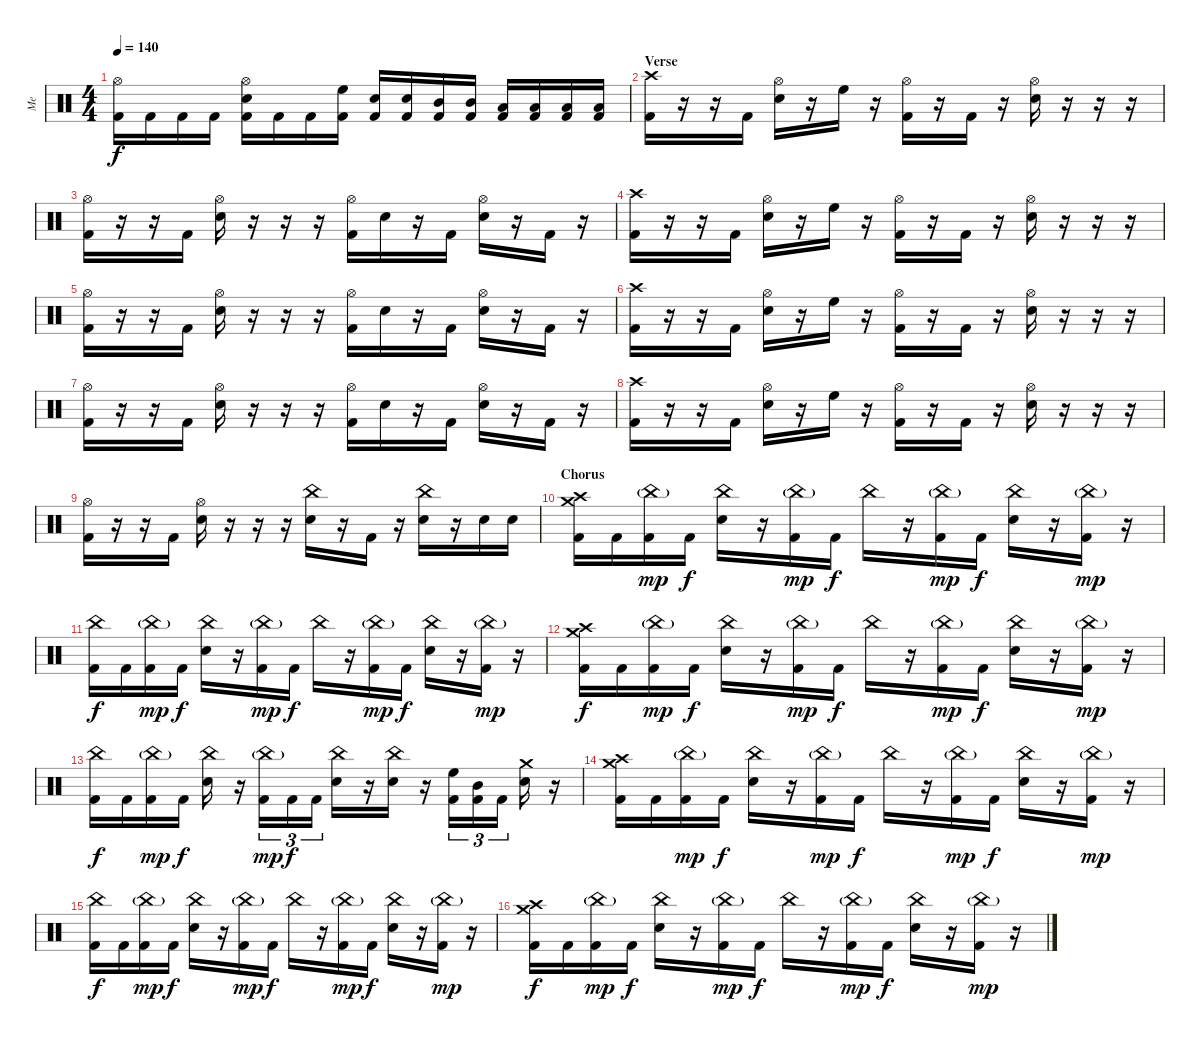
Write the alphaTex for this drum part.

\track ("Me" "Me") {instrument percussion}
\staff {score}
\articulation defaults
\ts (4 4)
\tempo 140
\clef neutral
\ks c
("Hi-Hat (open)" "Kick (hit) 2").16{dy f} "Kick (hit) 2".16 "Kick (hit) 2".16 "Kick (hit) 2".16 ("Hi-Hat (open)" "Electric Snare (hit)" "Kick (hit) 2").16 "Kick (hit) 2".16 "Kick (hit) 2".16 ("High Floor Tom (hit)" "Kick (hit) 2").16 ("Electric Snare (hit)" "Kick (hit) 2").16 ("Electric Snare (hit)" "Kick (hit) 2").16 ("Mid Tom (hit)" "Kick (hit) 2").16 ("Mid Tom (hit)" "Kick (hit) 2").16 ("Low Tom (hit)" "Kick (hit) 2").16 ("Low Tom (hit)" "Kick (hit) 2").16 ("Low Floor Tom (hit)" "Kick (hit) 2").16 ("Low Floor Tom (hit)" "Kick (hit) 2").16 |
\section ("" "Verse")
("Crash high (hit)" "Kick (hit) 2").16 r.16 r.16 "Kick (hit) 2".16 ("Hi-Hat (open)" "Electric Snare (hit)").16 r.16 "High Floor Tom (hit)".16 r.16 ("Hi-Hat (open)" "Kick (hit) 2").16 r.16 "Kick (hit) 2".16 r.16 ("Hi-Hat (open)" "Electric Snare (hit)").16 r.16 r.16 r.16 |
("Hi-Hat (open)" "Kick (hit) 2").16 r.16 r.16 "Kick (hit) 2".16 ("Hi-Hat (open)" "Electric Snare (hit)").16 r.16 r.16 r.16 ("Hi-Hat (open)" "Kick (hit) 2").16 "Electric Snare (hit)".16 r.16 "Kick (hit) 2".16 ("Hi-Hat (open)" "Electric Snare (hit)").16 r.16 "Kick (hit) 2".16 r.16 |
("Crash high (hit)" "Kick (hit) 2").16 r.16 r.16 "Kick (hit) 2".16 ("Hi-Hat (open)" "Electric Snare (hit)").16 r.16 "High Floor Tom (hit)".16 r.16 ("Hi-Hat (open)" "Kick (hit) 2").16 r.16 "Kick (hit) 2".16 r.16 ("Hi-Hat (open)" "Electric Snare (hit)").16 r.16 r.16 r.16 |
("Hi-Hat (open)" "Kick (hit) 2").16 r.16 r.16 "Kick (hit) 2".16 ("Hi-Hat (open)" "Electric Snare (hit)").16 r.16 r.16 r.16 ("Hi-Hat (open)" "Kick (hit) 2").16 "Electric Snare (hit)".16 r.16 "Kick (hit) 2".16 ("Hi-Hat (open)" "Electric Snare (hit)").16 r.16 "Kick (hit) 2".16 r.16 |
("Crash high (hit)" "Kick (hit) 2").16 r.16 r.16 "Kick (hit) 2".16 ("Hi-Hat (open)" "Electric Snare (hit)").16 r.16 "High Floor Tom (hit)".16 r.16 ("Hi-Hat (open)" "Kick (hit) 2").16 r.16 "Kick (hit) 2".16 r.16 ("Hi-Hat (open)" "Electric Snare (hit)").16 r.16 r.16 r.16 |
("Hi-Hat (open)" "Kick (hit) 2").16 r.16 r.16 "Kick (hit) 2".16 ("Hi-Hat (open)" "Electric Snare (hit)").16 r.16 r.16 r.16 ("Hi-Hat (open)" "Kick (hit) 2").16 "Electric Snare (hit)".16 r.16 "Kick (hit) 2".16 ("Hi-Hat (open)" "Electric Snare (hit)").16 r.16 "Kick (hit) 2".16 r.16 |
("Crash high (hit)" "Kick (hit) 2").16 r.16 r.16 "Kick (hit) 2".16 ("Hi-Hat (open)" "Electric Snare (hit)").16 r.16 "High Floor Tom (hit)".16 r.16 ("Hi-Hat (open)" "Kick (hit) 2").16 r.16 "Kick (hit) 2".16 r.16 ("Hi-Hat (open)" "Electric Snare (hit)").16 r.16 r.16 r.16 |
("Hi-Hat (open)" "Kick (hit) 2").16 r.16 r.16 "Kick (hit) 2".16 ("Hi-Hat (open)" "Electric Snare (hit)").16 r.16 r.16 r.16 ("China (hit)" "Electric Snare (hit)").16 r.16 "Kick (hit) 2".16 r.16 ("China (hit)" "Electric Snare (hit)").16 r.16 "Electric Snare (hit)".16 "Electric Snare (hit)".16 |
\section ("" "Chorus")
("Crash medium (hit)" "Crash high (hit)" "Kick (hit) 2").16 "Kick (hit) 2".16 ("China (hit)"{g} "Kick (hit) 2").16{dy mp} "Kick (hit) 2".16{dy f} ("China (hit)" "Electric Snare (hit)").16 r.16 ("China (hit)"{g} "Kick (hit) 2").16{dy mp} "Kick (hit) 2".16{dy f} "China (hit)".16 r.16 ("China (hit)"{g} "Kick (hit) 2").16{dy mp} "Kick (hit) 2".16{dy f} ("China (hit)" "Electric Snare (hit)").16 r.16 ("China (hit)"{g} "Kick (hit) 2").16{dy mp} r.16 |
("China (hit)" "Kick (hit) 2").16{dy f} "Kick (hit) 2".16 ("China (hit)"{g} "Kick (hit) 2").16{dy mp} "Kick (hit) 2".16{dy f} ("China (hit)" "Electric Snare (hit)").16 r.16 ("China (hit)"{g} "Kick (hit) 2").16{dy mp} "Kick (hit) 2".16{dy f} "China (hit)".16 r.16 ("China (hit)"{g} "Kick (hit) 2").16{dy mp} "Kick (hit) 2".16{dy f} ("China (hit)" "Electric Snare (hit)").16 r.16 ("China (hit)"{g} "Kick (hit) 2").16{dy mp} r.16 |
("Crash medium (hit)" "Crash high (hit)" "Kick (hit) 2").16{dy f} "Kick (hit) 2".16 ("China (hit)"{g} "Kick (hit) 2").16{dy mp} "Kick (hit) 2".16{dy f} ("China (hit)" "Electric Snare (hit)").16 r.16 ("China (hit)"{g} "Kick (hit) 2").16{dy mp} "Kick (hit) 2".16{dy f} "China (hit)".16 r.16 ("China (hit)"{g} "Kick (hit) 2").16{dy mp} "Kick (hit) 2".16{dy f} ("China (hit)" "Electric Snare (hit)").16 r.16 ("China (hit)"{g} "Kick (hit) 2").16{dy mp} r.16 |
("China (hit)" "Kick (hit) 2").16{dy f} "Kick (hit) 2".16 ("China (hit)"{g} "Kick (hit) 2").16{dy mp} "Kick (hit) 2".16{dy f} ("China (hit)" "Electric Snare (hit)").16 r.16 ("China (hit)"{g} "Kick (hit) 2").16{tu (3 2) dy mp} "Kick (hit) 2".16{tu (3 2) dy f} "Kick (hit) 2".16{tu (3 2)} ("China (hit)" "Electric Snare (hit)").16 r.16 ("China (hit)" "Electric Snare (hit)").16 r.16 ("High Floor Tom (hit)" "Kick (hit) 2").16{tu (3 2)} ("Mid Tom (hit)" "Kick (hit) 2").16{tu (3 2)} "Kick (hit) 2".16{tu (3 2)} ("Crash medium (hit)" "Electric Snare (hit)").16 r.16 |
("Crash medium (hit)" "Crash high (hit)" "Kick (hit) 2").16 "Kick (hit) 2".16 ("China (hit)"{g} "Kick (hit) 2").16{dy mp} "Kick (hit) 2".16{dy f} ("China (hit)" "Electric Snare (hit)").16 r.16 ("China (hit)"{g} "Kick (hit) 2").16{dy mp} "Kick (hit) 2".16{dy f} "China (hit)".16 r.16 ("China (hit)"{g} "Kick (hit) 2").16{dy mp} "Kick (hit) 2".16{dy f} ("China (hit)" "Electric Snare (hit)").16 r.16 ("China (hit)"{g} "Kick (hit) 2").16{dy mp} r.16 |
("China (hit)" "Kick (hit) 2").16{dy f} "Kick (hit) 2".16 ("China (hit)"{g} "Kick (hit) 2").16{dy mp} "Kick (hit) 2".16{dy f} ("China (hit)" "Electric Snare (hit)").16 r.16 ("China (hit)"{g} "Kick (hit) 2").16{dy mp} "Kick (hit) 2".16{dy f} "China (hit)".16 r.16 ("China (hit)"{g} "Kick (hit) 2").16{dy mp} "Kick (hit) 2".16{dy f} ("China (hit)" "Electric Snare (hit)").16 r.16 ("China (hit)"{g} "Kick (hit) 2").16{dy mp} r.16 |
("Crash medium (hit)" "Crash high (hit)" "Kick (hit) 2").16{dy f} "Kick (hit) 2".16 ("China (hit)"{g} "Kick (hit) 2").16{dy mp} "Kick (hit) 2".16{dy f} ("China (hit)" "Electric Snare (hit)").16 r.16 ("China (hit)"{g} "Kick (hit) 2").16{dy mp} "Kick (hit) 2".16{dy f} "China (hit)".16 r.16 ("China (hit)"{g} "Kick (hit) 2").16{dy mp} "Kick (hit) 2".16{dy f} ("China (hit)" "Electric Snare (hit)").16 r.16 ("China (hit)"{g} "Kick (hit) 2").16{dy mp} r.16
